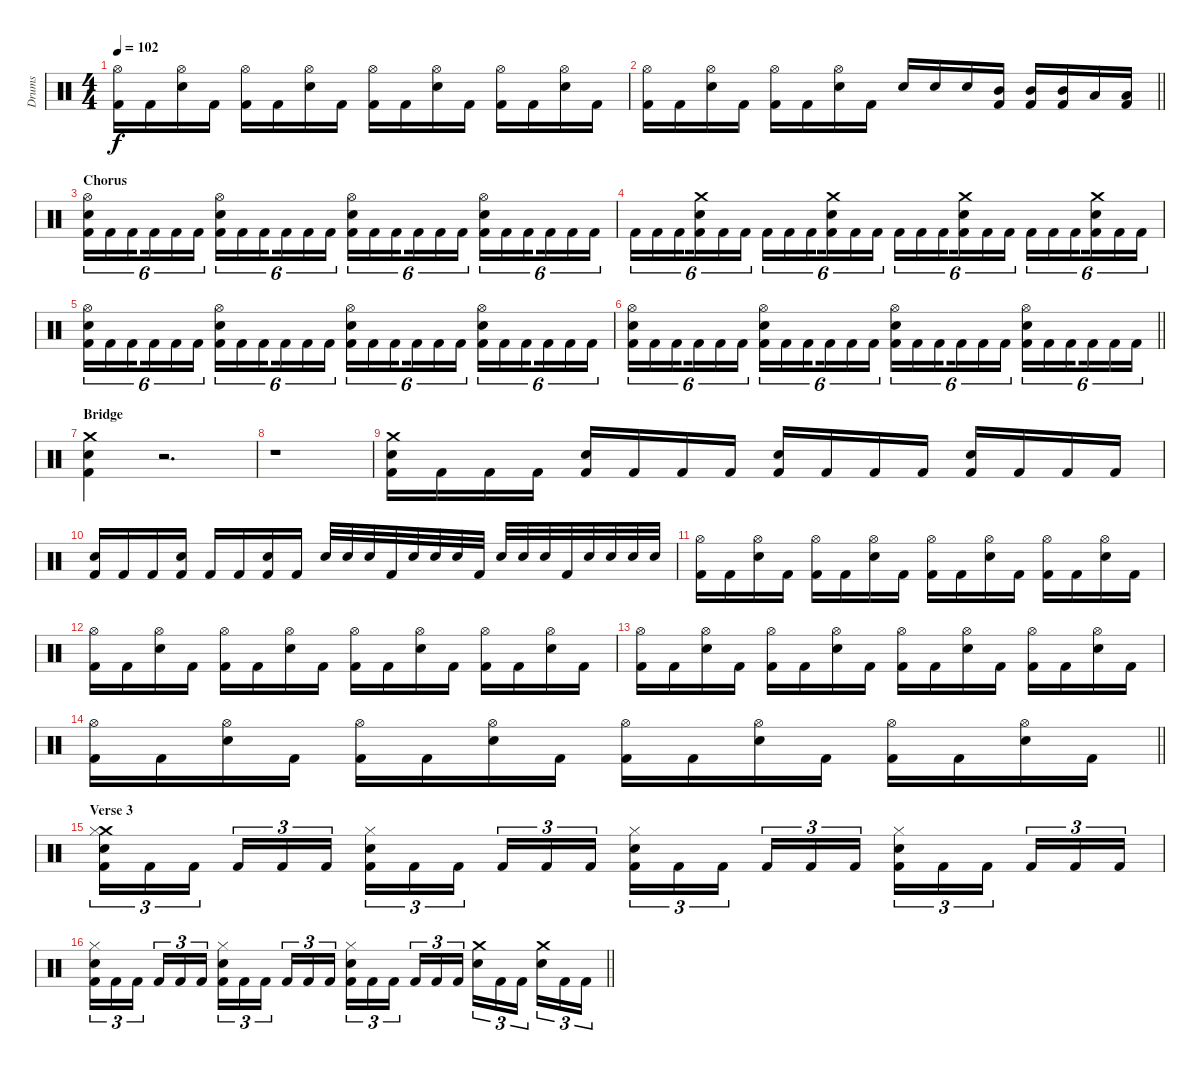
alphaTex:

\track ("Drums" "Drums") {instrument percussion}
\staff {score}
\articulation defaults
\ts (4 4)
\tempo 102
\clef neutral
\ks c
("Hi-Hat (open)" "Kick (hit) 2").16{dy f} "Kick (hit) 2".16 ("Hi-Hat (open)" "Snare (hit) 2").16 "Kick (hit) 2".16 ("Hi-Hat (open)" "Kick (hit) 2").16 "Kick (hit) 2".16 ("Hi-Hat (open)" "Snare (hit) 2").16 "Kick (hit) 2".16 ("Hi-Hat (open)" "Kick (hit) 2").16 "Kick (hit) 2".16 ("Hi-Hat (open)" "Snare (hit) 2").16 "Kick (hit) 2".16 ("Hi-Hat (open)" "Kick (hit) 2").16 "Kick (hit) 2".16 ("Hi-Hat (open)" "Snare (hit) 2").16 "Kick (hit) 2".16 |
\barLineRight lightlight
("Hi-Hat (open)" "Kick (hit) 2").16 "Kick (hit) 2".16 ("Hi-Hat (open)" "Snare (hit) 2").16 "Kick (hit) 2".16 ("Hi-Hat (open)" "Kick (hit) 2").16 "Kick (hit) 2".16 ("Hi-Hat (open)" "Snare (hit) 2").16 "Kick (hit) 2".16 "Snare (hit) 2".16 "Snare (hit) 2".16 "Snare (hit) 2".16 ("Mid Tom (hit)" "Kick (hit) 2").16 ("Mid Tom (hit)" "Kick (hit) 2").16 ("Mid Tom (hit)" "Kick (hit) 2").16 "Low Tom (hit)".16 ("Low Tom (hit)" "Kick (hit) 2").16 |
\section ("" "Chorus")
("Hi-Hat (open)" "Snare (hit) 2" "Kick (hit) 2").16{tu (6 4)} "Kick (hit) 2".16{tu (6 4)} "Kick (hit) 2".16{tu (6 4) beam splitsecondary} "Kick (hit) 2".16{tu (6 4)} "Kick (hit) 2".16{tu (6 4)} "Kick (hit) 2".16{tu (6 4)} ("Hi-Hat (open)" "Snare (hit) 2" "Kick (hit) 2").16{tu (6 4)} "Kick (hit) 2".16{tu (6 4)} "Kick (hit) 2".16{tu (6 4) beam splitsecondary} "Kick (hit) 2".16{tu (6 4)} "Kick (hit) 2".16{tu (6 4)} "Kick (hit) 2".16{tu (6 4)} ("Hi-Hat (open)" "Snare (hit) 2" "Kick (hit) 2").16{tu (6 4)} "Kick (hit) 2".16{tu (6 4)} "Kick (hit) 2".16{tu (6 4) beam splitsecondary} "Kick (hit) 2".16{tu (6 4)} "Kick (hit) 2".16{tu (6 4)} "Kick (hit) 2".16{tu (6 4)} ("Hi-Hat (open)" "Snare (hit) 2" "Kick (hit) 2").16{tu (6 4)} "Kick (hit) 2".16{tu (6 4)} "Kick (hit) 2".16{tu (6 4) beam splitsecondary} "Kick (hit) 2".16{tu (6 4)} "Kick (hit) 2".16{tu (6 4)} "Kick (hit) 2".16{tu (6 4)} |
"Kick (hit) 2".16{tu (6 4)} "Kick (hit) 2".16{tu (6 4)} "Kick (hit) 2".16{tu (6 4) beam splitsecondary} ("Crash medium (hit)" "Snare (hit) 2" "Kick (hit) 2").16{tu (6 4)} "Kick (hit) 2".16{tu (6 4)} "Kick (hit) 2".16{tu (6 4)} "Kick (hit) 2".16{tu (6 4)} "Kick (hit) 2".16{tu (6 4)} "Kick (hit) 2".16{tu (6 4) beam splitsecondary} ("Crash medium (hit)" "Snare (hit) 2" "Kick (hit) 2").16{tu (6 4)} "Kick (hit) 2".16{tu (6 4)} "Kick (hit) 2".16{tu (6 4)} "Kick (hit) 2".16{tu (6 4)} "Kick (hit) 2".16{tu (6 4)} "Kick (hit) 2".16{tu (6 4) beam splitsecondary} ("Crash medium (hit)" "Snare (hit) 2" "Kick (hit) 2").16{tu (6 4)} "Kick (hit) 2".16{tu (6 4)} "Kick (hit) 2".16{tu (6 4)} "Kick (hit) 2".16{tu (6 4)} "Kick (hit) 2".16{tu (6 4)} "Kick (hit) 2".16{tu (6 4) beam splitsecondary} ("Snare (hit) 2" "Crash medium (hit)" "Kick (hit) 2").16{tu (6 4)} "Kick (hit) 2".16{tu (6 4)} "Kick (hit) 2".16{tu (6 4)} |
("Hi-Hat (open)" "Snare (hit) 2" "Kick (hit) 2").16{tu (6 4)} "Kick (hit) 2".16{tu (6 4)} "Kick (hit) 2".16{tu (6 4) beam splitsecondary} "Kick (hit) 2".16{tu (6 4)} "Kick (hit) 2".16{tu (6 4)} "Kick (hit) 2".16{tu (6 4)} ("Hi-Hat (open)" "Snare (hit) 2" "Kick (hit) 2").16{tu (6 4)} "Kick (hit) 2".16{tu (6 4)} "Kick (hit) 2".16{tu (6 4) beam splitsecondary} "Kick (hit) 2".16{tu (6 4)} "Kick (hit) 2".16{tu (6 4)} "Kick (hit) 2".16{tu (6 4)} ("Hi-Hat (open)" "Snare (hit) 2" "Kick (hit) 2").16{tu (6 4)} "Kick (hit) 2".16{tu (6 4)} "Kick (hit) 2".16{tu (6 4) beam splitsecondary} "Kick (hit) 2".16{tu (6 4)} "Kick (hit) 2".16{tu (6 4)} "Kick (hit) 2".16{tu (6 4)} ("Hi-Hat (open)" "Snare (hit) 2" "Kick (hit) 2").16{tu (6 4)} "Kick (hit) 2".16{tu (6 4)} "Kick (hit) 2".16{tu (6 4) beam splitsecondary} "Kick (hit) 2".16{tu (6 4)} "Kick (hit) 2".16{tu (6 4)} "Kick (hit) 2".16{tu (6 4)} |
\barLineRight lightlight
("Hi-Hat (open)" "Snare (hit) 2" "Kick (hit) 2").16{tu (6 4)} "Kick (hit) 2".16{tu (6 4)} "Kick (hit) 2".16{tu (6 4) beam splitsecondary} "Kick (hit) 2".16{tu (6 4)} "Kick (hit) 2".16{tu (6 4)} "Kick (hit) 2".16{tu (6 4)} ("Hi-Hat (open)" "Snare (hit) 2" "Kick (hit) 2").16{tu (6 4)} "Kick (hit) 2".16{tu (6 4)} "Kick (hit) 2".16{tu (6 4) beam splitsecondary} "Kick (hit) 2".16{tu (6 4)} "Kick (hit) 2".16{tu (6 4)} "Kick (hit) 2".16{tu (6 4)} ("Hi-Hat (open)" "Snare (hit) 2" "Kick (hit) 2").16{tu (6 4)} "Kick (hit) 2".16{tu (6 4)} "Kick (hit) 2".16{tu (6 4) beam splitsecondary} "Kick (hit) 2".16{tu (6 4)} "Kick (hit) 2".16{tu (6 4)} "Kick (hit) 2".16{tu (6 4)} ("Hi-Hat (open)" "Snare (hit) 2" "Kick (hit) 2").16{tu (6 4)} "Kick (hit) 2".16{tu (6 4)} "Kick (hit) 2".16{tu (6 4) beam splitsecondary} "Kick (hit) 2".16{tu (6 4)} "Kick (hit) 2".16{tu (6 4)} "Kick (hit) 2".16{tu (6 4)} |
\section ("" "Bridge")
("Crash medium (hit)" "Snare (hit) 2" "Kick (hit) 2").4 r.2{d} |
r.1 |
("Crash medium (hit)" "Snare (hit) 2" "Kick (hit) 2").16 "Kick (hit) 2".16 "Kick (hit) 2".16 "Kick (hit) 2".16 ("Snare (hit) 2" "Kick (hit) 2").16 "Kick (hit) 2".16 "Kick (hit) 2".16 "Kick (hit) 2".16 ("Snare (hit) 2" "Kick (hit) 2").16 "Kick (hit) 2".16 "Kick (hit) 2".16 "Kick (hit) 2".16 ("Snare (hit) 2" "Kick (hit) 2").16 "Kick (hit) 2".16 "Kick (hit) 2".16 "Kick (hit) 2".16 |
("Snare (hit) 2" "Kick (hit) 2").16 "Kick (hit) 2".16 "Kick (hit) 2".16 ("Snare (hit) 2" "Kick (hit) 2").16 "Kick (hit) 2".16 "Kick (hit) 2".16 ("Snare (hit) 2" "Kick (hit) 2").16 "Kick (hit) 2".16 "Snare (hit) 2".32 "Snare (hit) 2".32 "Snare (hit) 2".32 "Kick (hit) 2".32 "Snare (hit) 2".32 "Snare (hit) 2".32 "Snare (hit) 2".32 "Kick (hit) 2".32 "Snare (hit) 2".32 "Snare (hit) 2".32 "Snare (hit) 2".32 "Kick (hit) 2".32 "Snare (hit) 2".32 "Snare (hit) 2".32 "Snare (hit) 2".32 "Snare (hit) 2".32 |
("Hi-Hat (open)" "Kick (hit) 2").16 "Kick (hit) 2".16 ("Hi-Hat (open)" "Snare (hit) 2").16 "Kick (hit) 2".16 ("Hi-Hat (open)" "Kick (hit) 2").16 "Kick (hit) 2".16 ("Hi-Hat (open)" "Snare (hit) 2").16 "Kick (hit) 2".16 ("Hi-Hat (open)" "Kick (hit) 2").16 "Kick (hit) 2".16 ("Hi-Hat (open)" "Snare (hit) 2").16 "Kick (hit) 2".16 ("Hi-Hat (open)" "Kick (hit) 2").16 "Kick (hit) 2".16 ("Hi-Hat (open)" "Snare (hit) 2").16 "Kick (hit) 2".16 |
("Hi-Hat (open)" "Kick (hit) 2").16 "Kick (hit) 2".16 ("Hi-Hat (open)" "Snare (hit) 2").16 "Kick (hit) 2".16 ("Hi-Hat (open)" "Kick (hit) 2").16 "Kick (hit) 2".16 ("Hi-Hat (open)" "Snare (hit) 2").16 "Kick (hit) 2".16 ("Hi-Hat (open)" "Kick (hit) 2").16 "Kick (hit) 2".16 ("Hi-Hat (open)" "Snare (hit) 2").16 "Kick (hit) 2".16 ("Hi-Hat (open)" "Kick (hit) 2").16 "Kick (hit) 2".16 ("Hi-Hat (open)" "Snare (hit) 2").16 "Kick (hit) 2".16 |
("Hi-Hat (open)" "Kick (hit) 2").16 "Kick (hit) 2".16 ("Hi-Hat (open)" "Snare (hit) 2").16 "Kick (hit) 2".16 ("Hi-Hat (open)" "Kick (hit) 2").16 "Kick (hit) 2".16 ("Hi-Hat (open)" "Snare (hit) 2").16 "Kick (hit) 2".16 ("Hi-Hat (open)" "Kick (hit) 2").16 "Kick (hit) 2".16 ("Hi-Hat (open)" "Snare (hit) 2").16 "Kick (hit) 2".16 ("Hi-Hat (open)" "Kick (hit) 2").16 "Kick (hit) 2".16 ("Hi-Hat (open)" "Snare (hit) 2").16 "Kick (hit) 2".16 |
\barLineRight lightlight
("Hi-Hat (open)" "Kick (hit) 2").16 "Kick (hit) 2".16 ("Hi-Hat (open)" "Snare (hit) 2").16 "Kick (hit) 2".16 ("Hi-Hat (open)" "Kick (hit) 2").16 "Kick (hit) 2".16 ("Hi-Hat (open)" "Snare (hit) 2").16 "Kick (hit) 2".16 ("Hi-Hat (open)" "Kick (hit) 2").16 "Kick (hit) 2".16 ("Hi-Hat (open)" "Snare (hit) 2").16 "Kick (hit) 2".16 ("Hi-Hat (open)" "Kick (hit) 2").16 "Kick (hit) 2".16 ("Hi-Hat (open)" "Snare (hit) 2").16 "Kick (hit) 2".16 |
\section ("" "Verse 3")
("Crash medium (hit)" "Hi-Hat (closed)" "Snare (hit) 2" "Kick (hit) 2").16{tu (3 2)} "Kick (hit) 2".16{tu (3 2)} "Kick (hit) 2".16{tu (3 2) beam splitsecondary} "Kick (hit) 2".16{tu (3 2)} "Kick (hit) 2".16{tu (3 2)} "Kick (hit) 2".16{tu (3 2)} ("Hi-Hat (closed)" "Snare (hit) 2" "Kick (hit) 2").16{tu (3 2)} "Kick (hit) 2".16{tu (3 2)} "Kick (hit) 2".16{tu (3 2) beam splitsecondary} "Kick (hit) 2".16{tu (3 2)} "Kick (hit) 2".16{tu (3 2)} "Kick (hit) 2".16{tu (3 2)} ("Hi-Hat (closed)" "Snare (hit) 2" "Kick (hit) 2").16{tu (3 2)} "Kick (hit) 2".16{tu (3 2)} "Kick (hit) 2".16{tu (3 2) beam splitsecondary} "Kick (hit) 2".16{tu (3 2)} "Kick (hit) 2".16{tu (3 2)} "Kick (hit) 2".16{tu (3 2)} ("Hi-Hat (closed)" "Snare (hit) 2" "Kick (hit) 2").16{tu (3 2)} "Kick (hit) 2".16{tu (3 2)} "Kick (hit) 2".16{tu (3 2) beam splitsecondary} "Kick (hit) 2".16{tu (3 2)} "Kick (hit) 2".16{tu (3 2)} "Kick (hit) 2".16{tu (3 2)} |
\barLineRight lightlight
("Hi-Hat (closed)" "Snare (hit) 2" "Kick (hit) 2").16{tu (3 2)} "Kick (hit) 2".16{tu (3 2)} "Kick (hit) 2".16{tu (3 2) beam splitsecondary} "Kick (hit) 2".16{tu (3 2)} "Kick (hit) 2".16{tu (3 2)} "Kick (hit) 2".16{tu (3 2)} ("Hi-Hat (closed)" "Snare (hit) 2" "Kick (hit) 2").16{tu (3 2)} "Kick (hit) 2".16{tu (3 2)} "Kick (hit) 2".16{tu (3 2) beam splitsecondary} "Kick (hit) 2".16{tu (3 2)} "Kick (hit) 2".16{tu (3 2)} "Kick (hit) 2".16{tu (3 2)} ("Hi-Hat (closed)" "Snare (hit) 2" "Kick (hit) 2").16{tu (3 2)} "Kick (hit) 2".16{tu (3 2)} "Kick (hit) 2".16{tu (3 2) beam splitsecondary} "Kick (hit) 2".16{tu (3 2)} "Kick (hit) 2".16{tu (3 2)} "Kick (hit) 2".16{tu (3 2)} ("Crash medium (hit)" "Snare (hit) 2").16{tu (3 2)} "Kick (hit) 2".16{tu (3 2)} "Kick (hit) 2".16{tu (3 2) beam splitsecondary} ("Crash medium (hit)" "Snare (hit) 2").16{tu (3 2)} "Kick (hit) 2".16{tu (3 2)} "Kick (hit) 2".16{tu (3 2)}
